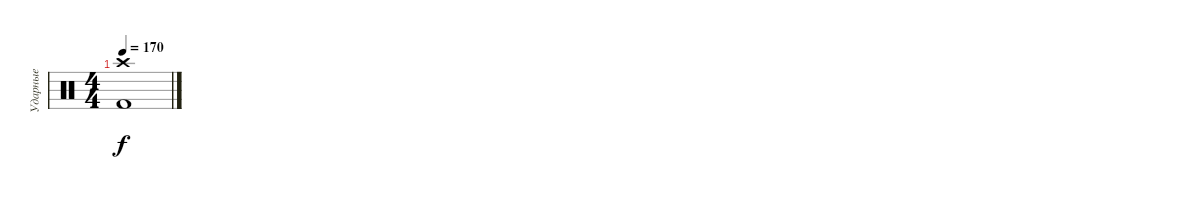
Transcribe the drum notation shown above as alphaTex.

\track ("Ударные" "Ударные") {instrument percussion}
\staff {score}
\articulation defaults
\ts (4 4)
\tempo 170
\clef neutral
\ks c
("Crash high (hit)" "Kick (hit) 2").1{dy f}
